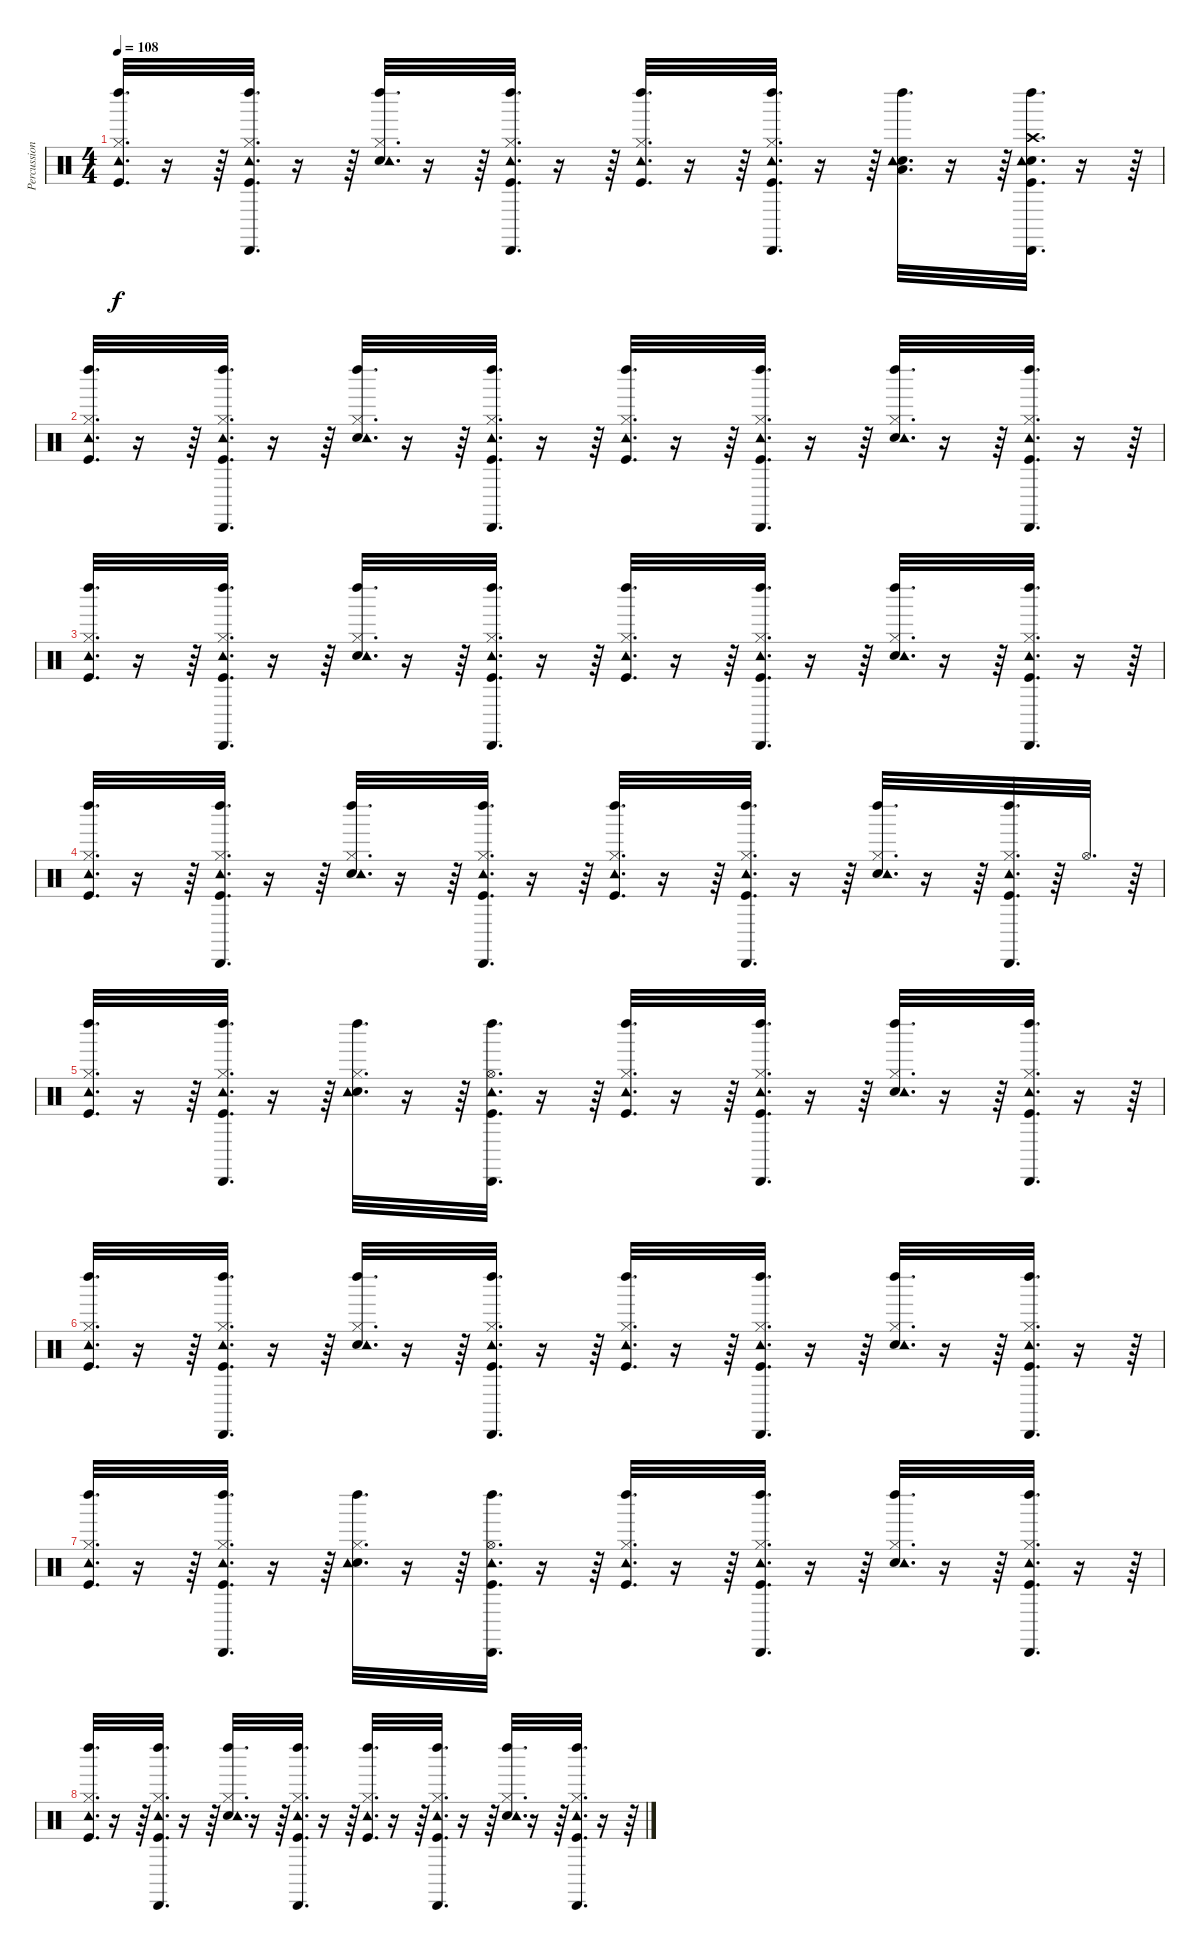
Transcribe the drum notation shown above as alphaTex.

\track ("Percussions" "Percussion") {instrument percussion}
\staff {score}
\articulation defaults
\ts (4 4)
\tempo 108
\clef neutral
\ks c
("Left Maraca (hit)" "Kick (hit)" "Hi-Hat (closed)" "Tambourine (hit)").32{d dy f} r.16 r.64 ("Cabasa (hit)" "Tambourine (hit)" "Kick (hit)" "Hi-Hat (closed)" "Left Maraca (hit)").32{d} r.16 r.64 ("Left Maraca (hit)" "Snare (hit) 2" "Hi-Hat (closed)" "Tambourine (hit)").32{d} r.16 r.64 ("Cabasa (hit)" "Tambourine (hit)" "Kick (hit)" "Hi-Hat (closed)" "Left Maraca (hit)").32{d} r.16 r.64 ("Left Maraca (hit)" "Kick (hit)" "Hi-Hat (closed)" "Tambourine (hit)").32{d} r.16 r.64 ("Cabasa (hit)" "Tambourine (hit)" "Kick (hit)" "Hi-Hat (closed)" "Left Maraca (hit)").32{d} r.16 r.64 ("Left Maraca (hit)" "Snare (hit) 2" "Low Floor Tom (hit)" "Tambourine (hit)").32{d} r.16 r.64 ("Cabasa (hit)" "Snare (hit) 2" "Crash high (hit)" "Kick (hit)" "Left Maraca (hit)" "Tambourine (hit)").32{d} r.16 r.64 |
("Left Maraca (hit)" "Kick (hit)" "Hi-Hat (closed)" "Tambourine (hit)").32{d} r.16 r.64 ("Cabasa (hit)" "Tambourine (hit)" "Kick (hit)" "Hi-Hat (closed)" "Left Maraca (hit)").32{d} r.16 r.64 ("Left Maraca (hit)" "Snare (hit) 2" "Hi-Hat (closed)" "Tambourine (hit)").32{d} r.16 r.64 ("Cabasa (hit)" "Tambourine (hit)" "Kick (hit)" "Hi-Hat (closed)" "Left Maraca (hit)").32{d} r.16 r.64 ("Left Maraca (hit)" "Kick (hit)" "Hi-Hat (closed)" "Tambourine (hit)").32{d} r.16 r.64 ("Cabasa (hit)" "Tambourine (hit)" "Kick (hit)" "Hi-Hat (closed)" "Left Maraca (hit)").32{d} r.16 r.64 ("Left Maraca (hit)" "Snare (hit) 2" "Hi-Hat (closed)" "Tambourine (hit)").32{d} r.16 r.64 ("Cabasa (hit)" "Tambourine (hit)" "Kick (hit)" "Hi-Hat (closed)" "Left Maraca (hit)").32{d} r.16 r.64 |
("Left Maraca (hit)" "Kick (hit)" "Hi-Hat (closed)" "Tambourine (hit)").32{d} r.16 r.64 ("Cabasa (hit)" "Tambourine (hit)" "Kick (hit)" "Hi-Hat (closed)" "Left Maraca (hit)").32{d} r.16 r.64 ("Left Maraca (hit)" "Snare (hit) 2" "Hi-Hat (closed)" "Tambourine (hit)").32{d} r.16 r.64 ("Cabasa (hit)" "Tambourine (hit)" "Kick (hit)" "Hi-Hat (closed)" "Left Maraca (hit)").32{d} r.16 r.64 ("Left Maraca (hit)" "Kick (hit)" "Hi-Hat (closed)" "Tambourine (hit)").32{d} r.16 r.64 ("Cabasa (hit)" "Tambourine (hit)" "Kick (hit)" "Hi-Hat (closed)" "Left Maraca (hit)").32{d} r.16 r.64 ("Left Maraca (hit)" "Snare (hit) 2" "Hi-Hat (closed)" "Tambourine (hit)").32{d} r.16 r.64 ("Cabasa (hit)" "Tambourine (hit)" "Kick (hit)" "Hi-Hat (closed)" "Left Maraca (hit)").32{d} r.16 r.64 |
("Left Maraca (hit)" "Kick (hit)" "Hi-Hat (closed)" "Tambourine (hit)").32{d} r.16 r.64 ("Cabasa (hit)" "Tambourine (hit)" "Kick (hit)" "Hi-Hat (closed)" "Left Maraca (hit)").32{d} r.16 r.64 ("Left Maraca (hit)" "Snare (hit) 2" "Hi-Hat (closed)" "Tambourine (hit)").32{d} r.16 r.64 ("Cabasa (hit)" "Tambourine (hit)" "Kick (hit)" "Hi-Hat (closed)" "Left Maraca (hit)").32{d} r.16 r.64 ("Left Maraca (hit)" "Kick (hit)" "Hi-Hat (closed)" "Tambourine (hit)").32{d} r.16 r.64 ("Cabasa (hit)" "Tambourine (hit)" "Kick (hit)" "Hi-Hat (closed)" "Left Maraca (hit)").32{d} r.16 r.64 ("Left Maraca (hit)" "Snare (hit) 2" "Hi-Hat (closed)" "Tambourine (hit)").32{d} r.16 r.64 ("Cabasa (hit)" "Tambourine (hit)" "Kick (hit)" "Hi-Hat (closed)" "Left Maraca (hit)").32{d} r.64 "Hi-Hat (open)".32{d} r.64 |
("Left Maraca (hit)" "Kick (hit)" "Hi-Hat (closed)" "Tambourine (hit)").32{d} r.16 r.64 ("Cabasa (hit)" "Tambourine (hit)" "Kick (hit)" "Hi-Hat (closed)" "Left Maraca (hit)").32{d} r.16 r.64 ("Left Maraca (hit)" "Snare (hit) 2" "Hi-Hat (closed)" "Tambourine (hit)").32{d} r.16 r.64 ("Cabasa (hit)" "Tambourine (hit)" "Kick (hit)" "Hi-Hat (open)" "Left Maraca (hit)").32{d} r.16 r.64 ("Left Maraca (hit)" "Kick (hit)" "Hi-Hat (closed)" "Tambourine (hit)").32{d} r.16 r.64 ("Cabasa (hit)" "Tambourine (hit)" "Kick (hit)" "Hi-Hat (closed)" "Left Maraca (hit)").32{d} r.16 r.64 ("Left Maraca (hit)" "Snare (hit) 2" "Hi-Hat (closed)" "Tambourine (hit)").32{d} r.16 r.64 ("Cabasa (hit)" "Tambourine (hit)" "Kick (hit)" "Hi-Hat (closed)" "Left Maraca (hit)").32{d} r.16 r.64 |
("Left Maraca (hit)" "Kick (hit)" "Hi-Hat (closed)" "Tambourine (hit)").32{d} r.16 r.64 ("Cabasa (hit)" "Tambourine (hit)" "Kick (hit)" "Hi-Hat (closed)" "Left Maraca (hit)").32{d} r.16 r.64 ("Left Maraca (hit)" "Snare (hit) 2" "Hi-Hat (closed)" "Tambourine (hit)").32{d} r.16 r.64 ("Cabasa (hit)" "Tambourine (hit)" "Kick (hit)" "Hi-Hat (closed)" "Left Maraca (hit)").32{d} r.16 r.64 ("Left Maraca (hit)" "Kick (hit)" "Hi-Hat (closed)" "Tambourine (hit)").32{d} r.16 r.64 ("Cabasa (hit)" "Tambourine (hit)" "Kick (hit)" "Hi-Hat (closed)" "Left Maraca (hit)").32{d} r.16 r.64 ("Left Maraca (hit)" "Snare (hit) 2" "Hi-Hat (closed)" "Tambourine (hit)").32{d} r.16 r.64 ("Cabasa (hit)" "Tambourine (hit)" "Kick (hit)" "Hi-Hat (closed)" "Left Maraca (hit)").32{d} r.16 r.64 |
("Left Maraca (hit)" "Kick (hit)" "Hi-Hat (closed)" "Tambourine (hit)").32{d} r.16 r.64 ("Cabasa (hit)" "Tambourine (hit)" "Kick (hit)" "Hi-Hat (closed)" "Left Maraca (hit)").32{d} r.16 r.64 ("Left Maraca (hit)" "Snare (hit) 2" "Hi-Hat (closed)" "Tambourine (hit)").32{d} r.16 r.64 ("Cabasa (hit)" "Tambourine (hit)" "Kick (hit)" "Hi-Hat (open)" "Left Maraca (hit)").32{d} r.16 r.64 ("Left Maraca (hit)" "Kick (hit)" "Hi-Hat (closed)" "Tambourine (hit)").32{d} r.16 r.64 ("Cabasa (hit)" "Tambourine (hit)" "Kick (hit)" "Hi-Hat (closed)" "Left Maraca (hit)").32{d} r.16 r.64 ("Left Maraca (hit)" "Snare (hit) 2" "Hi-Hat (closed)" "Tambourine (hit)").32{d} r.16 r.64 ("Cabasa (hit)" "Tambourine (hit)" "Kick (hit)" "Hi-Hat (closed)" "Left Maraca (hit)").32{d} r.16 r.64 |
("Left Maraca (hit)" "Kick (hit)" "Hi-Hat (closed)" "Tambourine (hit)").32{d} r.16 r.64 ("Cabasa (hit)" "Tambourine (hit)" "Kick (hit)" "Hi-Hat (closed)" "Left Maraca (hit)").32{d} r.16 r.64 ("Left Maraca (hit)" "Snare (hit) 2" "Hi-Hat (closed)" "Tambourine (hit)").32{d} r.16 r.64 ("Cabasa (hit)" "Tambourine (hit)" "Kick (hit)" "Hi-Hat (closed)" "Left Maraca (hit)").32{d} r.16 r.64 ("Left Maraca (hit)" "Kick (hit)" "Hi-Hat (closed)" "Tambourine (hit)").32{d} r.16 r.64 ("Cabasa (hit)" "Tambourine (hit)" "Kick (hit)" "Hi-Hat (closed)" "Left Maraca (hit)").32{d} r.16 r.64 ("Left Maraca (hit)" "Snare (hit) 2" "Hi-Hat (closed)" "Tambourine (hit)").32{d} r.16 r.64 ("Cabasa (hit)" "Tambourine (hit)" "Kick (hit)" "Hi-Hat (closed)" "Left Maraca (hit)").32{d} r.16 r.64
